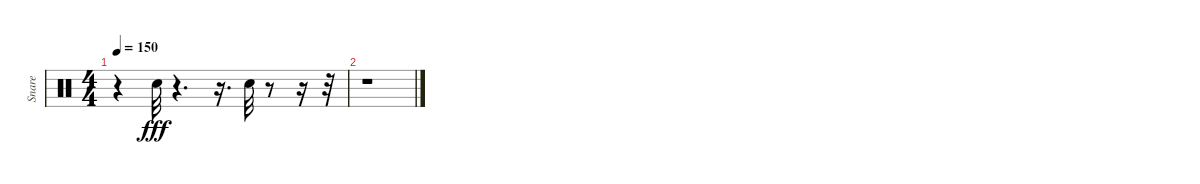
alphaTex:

\track ("Snare" "Snare") {instrument percussion}
\staff {score}
\articulation defaults
\ts (4 4)
\tempo 150
\clef neutral
\ks c
r.4{dy fff} "Electric Snare (hit)".32 r.4{d} r.16{d} "Electric Snare (hit)".32 r.8 r.16 r.32 |
r.1
